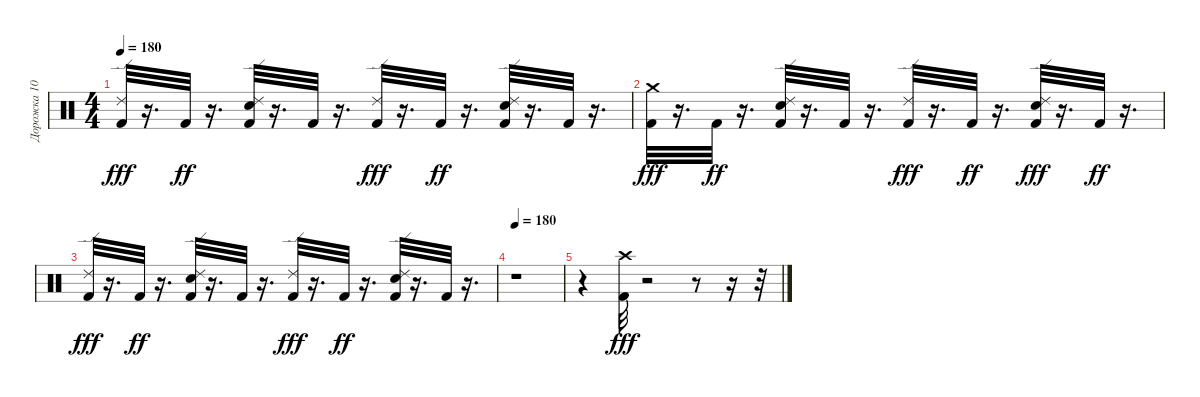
\track ("Дорожка 10" "Дорожка 10") {instrument percussion}
\staff {score}
\articulation defaults
\ts (4 4)
\tempo 180
\clef neutral
\ks c
("Kick (hit) 2" "Ride (edge) 2").32{dy fff} r.16{d} "Kick (hit) 2".32{dy ff} r.16{d} ("Kick (hit) 2" "Snare (hit) 2" "Ride (edge) 2").32 r.16{d} "Kick (hit) 2".32 r.16{d} ("Kick (hit) 2" "Ride (edge) 2").32{dy fff} r.16{d} "Kick (hit) 2".32{dy ff} r.16{d} ("Kick (hit) 2" "Snare (hit) 2" "Ride (edge) 2").32 r.16{d} "Kick (hit) 2".32 r.16{d} |
("Crash medium (hit)" "Kick (hit) 2").32{dy fff} r.16{d} "Kick (hit) 2".32{dy ff} r.16{d} ("Kick (hit) 2" "Snare (hit) 2" "Ride (edge) 2").32 r.16{d} "Kick (hit) 2".32 r.16{d} ("Kick (hit) 2" "Ride (edge) 2").32{dy fff} r.16{d} "Kick (hit) 2".32{dy ff} r.16{d} ("Kick (hit) 2" "Snare (hit) 2" "Ride (edge) 2").32{dy fff} r.16{d} "Kick (hit) 2".32{dy ff} r.16{d} |
("Kick (hit) 2" "Ride (edge) 2").32{dy fff} r.16{d} "Kick (hit) 2".32{dy ff} r.16{d} ("Kick (hit) 2" "Snare (hit) 2" "Ride (edge) 2").32 r.16{d} "Kick (hit) 2".32 r.16{d} ("Kick (hit) 2" "Ride (edge) 2").32{dy fff} r.16{d} "Kick (hit) 2".32{dy ff} r.16{d} ("Kick (hit) 2" "Snare (hit) 2" "Ride (edge) 2").32 r.16{d} "Kick (hit) 2".32 r.16{d} |
\tempo 180
r.1 |
r.4 ("Kick (hit) 2" "Crash high (hit)").32{dy fff} r.2 r.8 r.16 r.32
